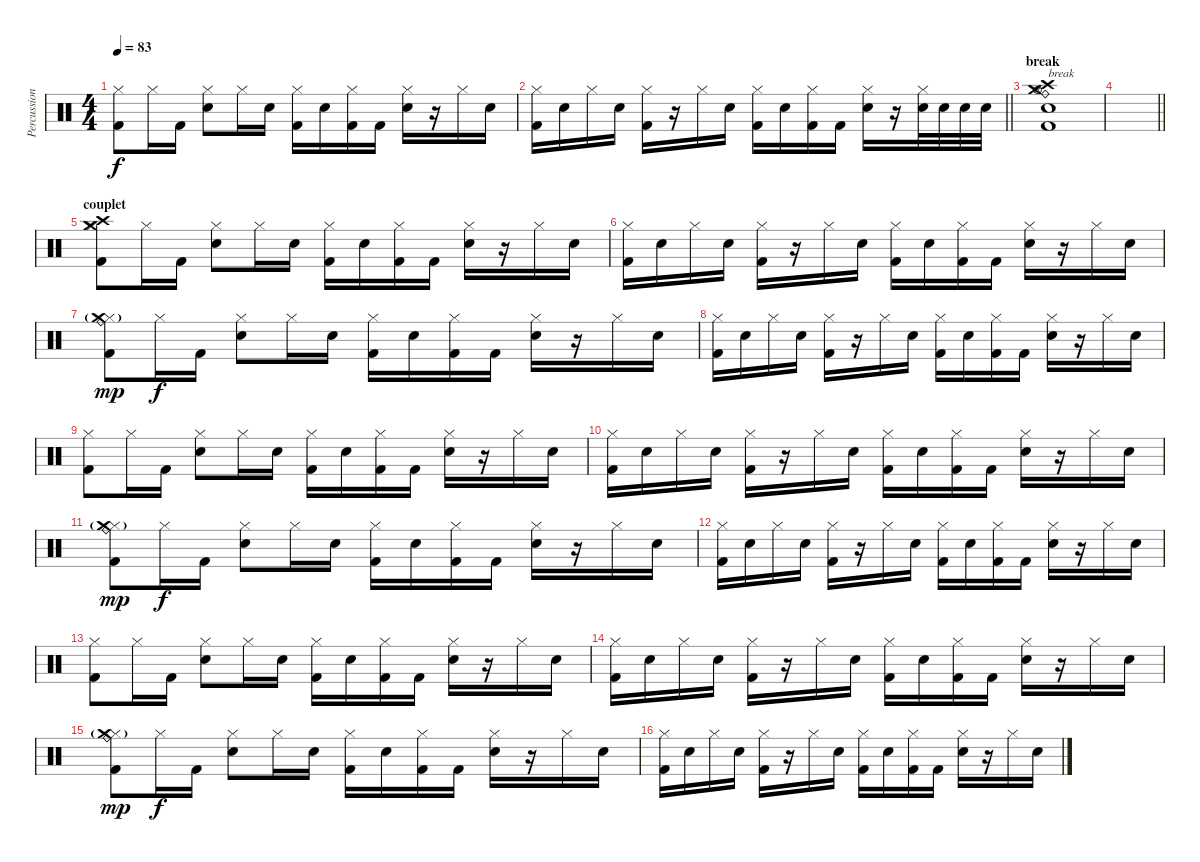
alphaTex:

\track ("Percussions" "Percussion") {instrument percussion}
\staff {score}
\articulation defaults
\ts (4 4)
\tempo 83
\clef neutral
\ks c
("Hi-Hat (closed)" "Kick (hit) 2").8{dy f} "Hi-Hat (closed)".16 "Kick (hit) 2".16 ("Hi-Hat (closed)" "Snare (hit) 2").8 "Hi-Hat (closed)".16 "Snare (hit) 2".16 ("Hi-Hat (closed)" "Kick (hit) 2").16 "Snare (hit) 2".16 ("Hi-Hat (closed)" "Kick (hit) 2").16 "Kick (hit) 2".16 ("Hi-Hat (closed)" "Snare (hit) 2").16 r.16 "Hi-Hat (closed)".16 "Snare (hit) 2".16 |
\barLineRight lightlight
("Hi-Hat (closed)" "Kick (hit) 2").16 "Snare (hit) 2".16 "Hi-Hat (closed)".16 "Snare (hit) 2".16 ("Hi-Hat (closed)" "Kick (hit) 2").16 r.16 "Hi-Hat (closed)".16 "Snare (hit) 2".16 ("Hi-Hat (closed)" "Kick (hit) 2").16 "Snare (hit) 2".16 ("Hi-Hat (closed)" "Kick (hit) 2").16 "Kick (hit) 2".16 ("Hi-Hat (closed)" "Snare (hit) 2").16 r.16 ("Hi-Hat (closed)" "Snare (hit) 2").32 "Snare (hit) 2".32 "Snare (hit) 2".32 "Snare (hit) 2".32 |
\section ("" "break")
("Snare (hit) 2" "Kick (hit) 2" "Ride (bell)" "Hi-Hat (open)" "Crash medium (hit)" "Crash high (hit)").1{txt "break"} |
\barLineRight lightlight
|
\section ("" "couplet")
("Hi-Hat (closed)" "Kick (hit) 2" "Crash high (hit)" "Crash medium (hit)").8 "Hi-Hat (closed)".16 "Kick (hit) 2".16 ("Hi-Hat (closed)" "Snare (hit) 2").8 "Hi-Hat (closed)".16 "Snare (hit) 2".16 ("Hi-Hat (closed)" "Kick (hit) 2").16 "Snare (hit) 2".16 ("Hi-Hat (closed)" "Kick (hit) 2").16 "Kick (hit) 2".16 ("Hi-Hat (closed)" "Snare (hit) 2").16 r.16 "Hi-Hat (closed)".16 "Snare (hit) 2".16 |
("Hi-Hat (closed)" "Kick (hit) 2").16 "Snare (hit) 2".16 "Hi-Hat (closed)".16 "Snare (hit) 2".16 ("Hi-Hat (closed)" "Kick (hit) 2").16 r.16 "Hi-Hat (closed)".16 "Snare (hit) 2".16 ("Hi-Hat (closed)" "Kick (hit) 2").16 "Snare (hit) 2".16 ("Hi-Hat (closed)" "Kick (hit) 2").16 "Kick (hit) 2".16 ("Hi-Hat (closed)" "Snare (hit) 2").16 r.16 "Hi-Hat (closed)".16 "Snare (hit) 2".16 |
("Hi-Hat (closed)" "Kick (hit) 2" "Crash medium (hit)"{g} "Ride (bell)").8{dy mp} "Hi-Hat (closed)".16{dy f} "Kick (hit) 2".16 ("Hi-Hat (closed)" "Snare (hit) 2").8 "Hi-Hat (closed)".16 "Snare (hit) 2".16 ("Hi-Hat (closed)" "Kick (hit) 2").16 "Snare (hit) 2".16 ("Hi-Hat (closed)" "Kick (hit) 2").16 "Kick (hit) 2".16 ("Hi-Hat (closed)" "Snare (hit) 2").16 r.16 "Hi-Hat (closed)".16 "Snare (hit) 2".16 |
("Hi-Hat (closed)" "Kick (hit) 2").16 "Snare (hit) 2".16 "Hi-Hat (closed)".16 "Snare (hit) 2".16 ("Hi-Hat (closed)" "Kick (hit) 2").16 r.16 "Hi-Hat (closed)".16 "Snare (hit) 2".16 ("Hi-Hat (closed)" "Kick (hit) 2").16 "Snare (hit) 2".16 ("Hi-Hat (closed)" "Kick (hit) 2").16 "Kick (hit) 2".16 ("Hi-Hat (closed)" "Snare (hit) 2").16 r.16 "Hi-Hat (closed)".16 "Snare (hit) 2".16 |
("Hi-Hat (closed)" "Kick (hit) 2").8 "Hi-Hat (closed)".16 "Kick (hit) 2".16 ("Hi-Hat (closed)" "Snare (hit) 2").8 "Hi-Hat (closed)".16 "Snare (hit) 2".16 ("Hi-Hat (closed)" "Kick (hit) 2").16 "Snare (hit) 2".16 ("Hi-Hat (closed)" "Kick (hit) 2").16 "Kick (hit) 2".16 ("Hi-Hat (closed)" "Snare (hit) 2").16 r.16 "Hi-Hat (closed)".16 "Snare (hit) 2".16 |
("Hi-Hat (closed)" "Kick (hit) 2").16 "Snare (hit) 2".16 "Hi-Hat (closed)".16 "Snare (hit) 2".16 ("Hi-Hat (closed)" "Kick (hit) 2").16 r.16 "Hi-Hat (closed)".16 "Snare (hit) 2".16 ("Hi-Hat (closed)" "Kick (hit) 2").16 "Snare (hit) 2".16 ("Hi-Hat (closed)" "Kick (hit) 2").16 "Kick (hit) 2".16 ("Hi-Hat (closed)" "Snare (hit) 2").16 r.16 "Hi-Hat (closed)".16 "Snare (hit) 2".16 |
("Hi-Hat (closed)" "Kick (hit) 2" "Crash medium (hit)"{g} "Ride (bell)").8{dy mp} "Hi-Hat (closed)".16{dy f} "Kick (hit) 2".16 ("Hi-Hat (closed)" "Snare (hit) 2").8 "Hi-Hat (closed)".16 "Snare (hit) 2".16 ("Hi-Hat (closed)" "Kick (hit) 2").16 "Snare (hit) 2".16 ("Hi-Hat (closed)" "Kick (hit) 2").16 "Kick (hit) 2".16 ("Hi-Hat (closed)" "Snare (hit) 2").16 r.16 "Hi-Hat (closed)".16 "Snare (hit) 2".16 |
("Hi-Hat (closed)" "Kick (hit) 2").16 "Snare (hit) 2".16 "Hi-Hat (closed)".16 "Snare (hit) 2".16 ("Hi-Hat (closed)" "Kick (hit) 2").16 r.16 "Hi-Hat (closed)".16 "Snare (hit) 2".16 ("Hi-Hat (closed)" "Kick (hit) 2").16 "Snare (hit) 2".16 ("Hi-Hat (closed)" "Kick (hit) 2").16 "Kick (hit) 2".16 ("Hi-Hat (closed)" "Snare (hit) 2").16 r.16 "Hi-Hat (closed)".16 "Snare (hit) 2".16 |
("Hi-Hat (closed)" "Kick (hit) 2").8 "Hi-Hat (closed)".16 "Kick (hit) 2".16 ("Hi-Hat (closed)" "Snare (hit) 2").8 "Hi-Hat (closed)".16 "Snare (hit) 2".16 ("Hi-Hat (closed)" "Kick (hit) 2").16 "Snare (hit) 2".16 ("Hi-Hat (closed)" "Kick (hit) 2").16 "Kick (hit) 2".16 ("Hi-Hat (closed)" "Snare (hit) 2").16 r.16 "Hi-Hat (closed)".16 "Snare (hit) 2".16 |
("Hi-Hat (closed)" "Kick (hit) 2").16 "Snare (hit) 2".16 "Hi-Hat (closed)".16 "Snare (hit) 2".16 ("Hi-Hat (closed)" "Kick (hit) 2").16 r.16 "Hi-Hat (closed)".16 "Snare (hit) 2".16 ("Hi-Hat (closed)" "Kick (hit) 2").16 "Snare (hit) 2".16 ("Hi-Hat (closed)" "Kick (hit) 2").16 "Kick (hit) 2".16 ("Hi-Hat (closed)" "Snare (hit) 2").16 r.16 "Hi-Hat (closed)".16 "Snare (hit) 2".16 |
("Hi-Hat (closed)" "Kick (hit) 2" "Crash medium (hit)"{g} "Ride (bell)").8{dy mp} "Hi-Hat (closed)".16{dy f} "Kick (hit) 2".16 ("Hi-Hat (closed)" "Snare (hit) 2").8 "Hi-Hat (closed)".16 "Snare (hit) 2".16 ("Hi-Hat (closed)" "Kick (hit) 2").16 "Snare (hit) 2".16 ("Hi-Hat (closed)" "Kick (hit) 2").16 "Kick (hit) 2".16 ("Hi-Hat (closed)" "Snare (hit) 2").16 r.16 "Hi-Hat (closed)".16 "Snare (hit) 2".16 |
("Hi-Hat (closed)" "Kick (hit) 2").16 "Snare (hit) 2".16 "Hi-Hat (closed)".16 "Snare (hit) 2".16 ("Hi-Hat (closed)" "Kick (hit) 2").16 r.16 "Hi-Hat (closed)".16 "Snare (hit) 2".16 ("Hi-Hat (closed)" "Kick (hit) 2").16 "Snare (hit) 2".16 ("Hi-Hat (closed)" "Kick (hit) 2").16 "Kick (hit) 2".16 ("Hi-Hat (closed)" "Snare (hit) 2").16 r.16 "Hi-Hat (closed)".16 "Snare (hit) 2".16
